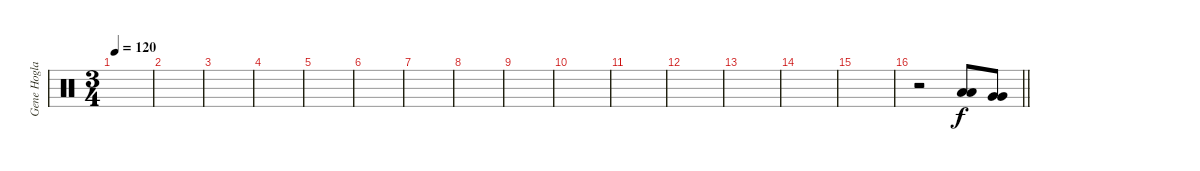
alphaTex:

\track ("Gene Hoglan" "Gene Hogla") {instrument percussion}
\staff {score}
\articulation defaults
\ts (3 4)
\tempo 120
\clef neutral
\ks c
|
|
|
|
|
|
|
|
|
|
|
|
|
|
|
\barLineRight lightlight
r.2 ("Low Tom (hit)" "Low Tom (hit)").8 ("Very Low Tom (hit)" "Very Low Tom (hit)").8
